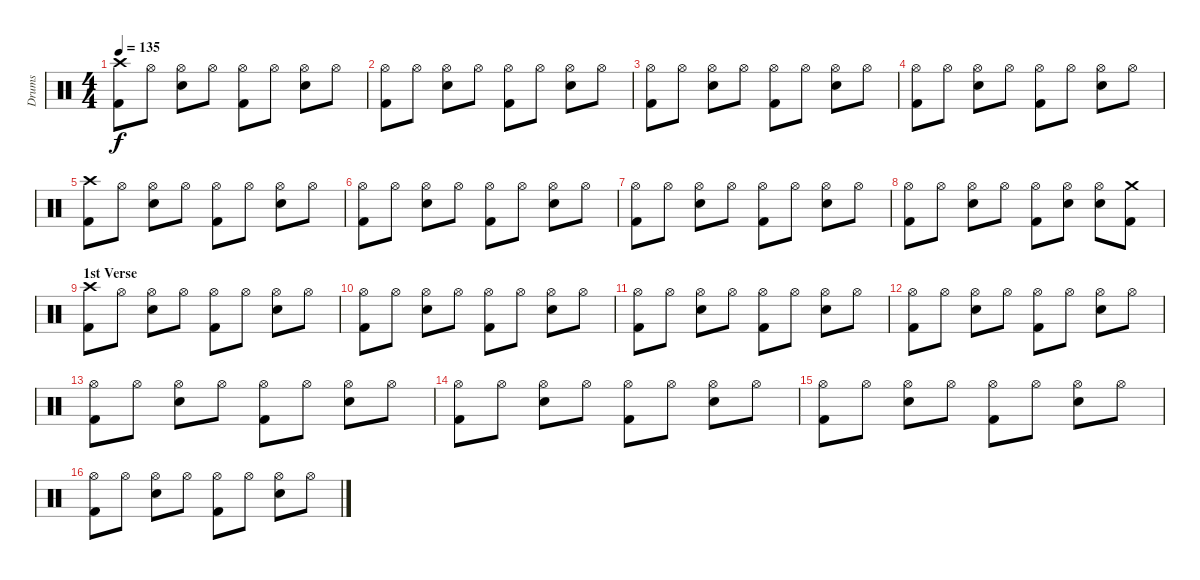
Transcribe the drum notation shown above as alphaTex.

\track ("Drums" "Drums") {instrument percussion}
\staff {score}
\articulation defaults
\ts (4 4)
\tempo 135
\clef neutral
\ks c
("Crash high (hit)" "Kick (hit) 2").8{dy f} "Hi-Hat (open)".8 ("Hi-Hat (open)" "Snare (hit) 2").8 "Hi-Hat (open)".8 ("Hi-Hat (open)" "Kick (hit) 2").8 "Hi-Hat (open)".8 ("Hi-Hat (open)" "Snare (hit) 2").8 "Hi-Hat (open)".8 |
("Hi-Hat (open)" "Kick (hit) 2").8 "Hi-Hat (open)".8 ("Hi-Hat (open)" "Snare (hit) 2").8 "Hi-Hat (open)".8 ("Hi-Hat (open)" "Kick (hit) 2").8 "Hi-Hat (open)".8 ("Hi-Hat (open)" "Snare (hit) 2").8 "Hi-Hat (open)".8 |
("Hi-Hat (open)" "Kick (hit) 2").8 "Hi-Hat (open)".8 ("Hi-Hat (open)" "Snare (hit) 2").8 "Hi-Hat (open)".8 ("Hi-Hat (open)" "Kick (hit) 2").8 "Hi-Hat (open)".8 ("Hi-Hat (open)" "Snare (hit) 2").8 "Hi-Hat (open)".8 |
("Hi-Hat (open)" "Kick (hit) 2").8 "Hi-Hat (open)".8 ("Hi-Hat (open)" "Snare (hit) 2").8 "Hi-Hat (open)".8 ("Hi-Hat (open)" "Kick (hit) 2").8 "Hi-Hat (open)".8 ("Hi-Hat (open)" "Snare (hit) 2").8 "Hi-Hat (open)".8 |
("Crash high (hit)" "Kick (hit) 2").8 "Hi-Hat (open)".8 ("Hi-Hat (open)" "Snare (hit) 2").8 "Hi-Hat (open)".8 ("Hi-Hat (open)" "Kick (hit) 2").8 "Hi-Hat (open)".8 ("Hi-Hat (open)" "Snare (hit) 2").8 "Hi-Hat (open)".8 |
("Hi-Hat (open)" "Kick (hit) 2").8 "Hi-Hat (open)".8 ("Hi-Hat (open)" "Snare (hit) 2").8 "Hi-Hat (open)".8 ("Hi-Hat (open)" "Kick (hit) 2").8 "Hi-Hat (open)".8 ("Hi-Hat (open)" "Snare (hit) 2").8 "Hi-Hat (open)".8 |
("Hi-Hat (open)" "Kick (hit) 2").8 "Hi-Hat (open)".8 ("Hi-Hat (open)" "Snare (hit) 2").8 "Hi-Hat (open)".8 ("Hi-Hat (open)" "Kick (hit) 2").8 "Hi-Hat (open)".8 ("Hi-Hat (open)" "Snare (hit) 2").8 "Hi-Hat (open)".8 |
("Hi-Hat (open)" "Kick (hit) 2").8 "Hi-Hat (open)".8 ("Hi-Hat (open)" "Snare (hit) 2").8 "Hi-Hat (open)".8 ("Hi-Hat (open)" "Kick (hit) 2").8 ("Hi-Hat (open)" "Snare (hit) 2").8 ("Hi-Hat (open)" "Snare (hit) 2").8 ("Crash medium (hit)" "Kick (hit) 2").8 |
\section ("" "1st Verse")
("Crash high (hit)" "Kick (hit) 2").8 "Hi-Hat (open)".8 ("Hi-Hat (open)" "Snare (hit) 2").8 "Hi-Hat (open)".8 ("Hi-Hat (open)" "Kick (hit) 2").8 "Hi-Hat (open)".8 ("Hi-Hat (open)" "Snare (hit) 2").8 "Hi-Hat (open)".8 |
("Hi-Hat (open)" "Kick (hit) 2").8 "Hi-Hat (open)".8 ("Hi-Hat (open)" "Snare (hit) 2").8 "Hi-Hat (open)".8 ("Hi-Hat (open)" "Kick (hit) 2").8 "Hi-Hat (open)".8 ("Hi-Hat (open)" "Snare (hit) 2").8 "Hi-Hat (open)".8 |
("Hi-Hat (open)" "Kick (hit) 2").8 "Hi-Hat (open)".8 ("Hi-Hat (open)" "Snare (hit) 2").8 "Hi-Hat (open)".8 ("Hi-Hat (open)" "Kick (hit) 2").8 "Hi-Hat (open)".8 ("Hi-Hat (open)" "Snare (hit) 2").8 "Hi-Hat (open)".8 |
("Hi-Hat (open)" "Kick (hit) 2").8 "Hi-Hat (open)".8 ("Hi-Hat (open)" "Snare (hit) 2").8 "Hi-Hat (open)".8 ("Hi-Hat (open)" "Kick (hit) 2").8 "Hi-Hat (open)".8 ("Hi-Hat (open)" "Snare (hit) 2").8 "Hi-Hat (open)".8 |
("Hi-Hat (open)" "Kick (hit) 2").8 "Hi-Hat (open)".8 ("Hi-Hat (open)" "Snare (hit) 2").8 "Hi-Hat (open)".8 ("Hi-Hat (open)" "Kick (hit) 2").8 "Hi-Hat (open)".8 ("Hi-Hat (open)" "Snare (hit) 2").8 "Hi-Hat (open)".8 |
("Hi-Hat (open)" "Kick (hit) 2").8 "Hi-Hat (open)".8 ("Hi-Hat (open)" "Snare (hit) 2").8 "Hi-Hat (open)".8 ("Hi-Hat (open)" "Kick (hit) 2").8 "Hi-Hat (open)".8 ("Hi-Hat (open)" "Snare (hit) 2").8 "Hi-Hat (open)".8 |
("Hi-Hat (open)" "Kick (hit) 2").8 "Hi-Hat (open)".8 ("Hi-Hat (open)" "Snare (hit) 2").8 "Hi-Hat (open)".8 ("Hi-Hat (open)" "Kick (hit) 2").8 "Hi-Hat (open)".8 ("Hi-Hat (open)" "Snare (hit) 2").8 "Hi-Hat (open)".8 |
("Hi-Hat (open)" "Kick (hit) 2").8 "Hi-Hat (open)".8 ("Hi-Hat (open)" "Snare (hit) 2").8 "Hi-Hat (open)".8 ("Hi-Hat (open)" "Kick (hit) 2").8 "Hi-Hat (open)".8 ("Hi-Hat (open)" "Snare (hit) 2").8 "Hi-Hat (open)".8
